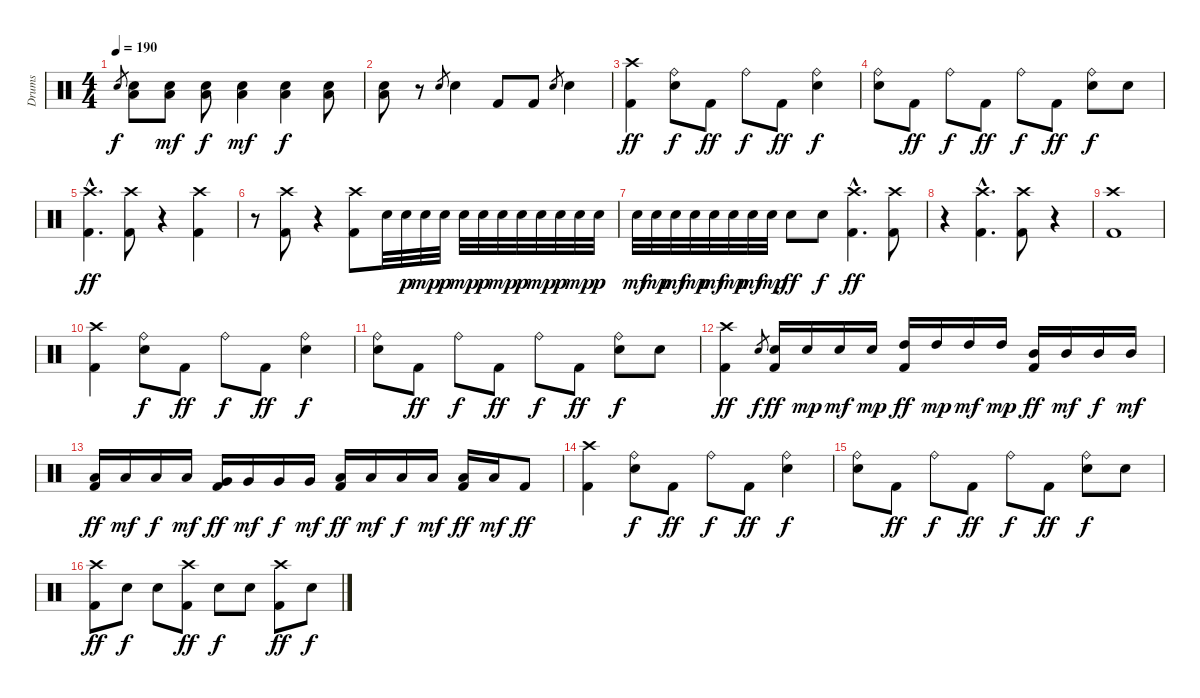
\track ("Drums" "Drums") {instrument percussion}
\staff {score}
\articulation defaults
\ts (4 4)
\tempo 190
\clef neutral
\ks c "Snare (hit) 2".8{gr dy f}
("Low Floor Tom (hit)" "Snare (hit) 2").8 ("Low Floor Tom (hit)" "Snare (hit) 2").8{dy mf} ("Low Floor Tom (hit)" "Snare (hit) 2").8{dy f} ("Low Floor Tom (hit)" "Snare (hit) 2").4{dy mf} ("Low Floor Tom (hit)" "Snare (hit) 2").4{dy f} ("Low Floor Tom (hit)" "Snare (hit) 2").8 |
("Low Floor Tom (hit)" "Snare (hit) 2").8 r.8 "Snare (hit) 2".8{gr} "Snare (hit) 2".4 "Kick (hit) 2".8 "Kick (hit) 2".8 "Snare (hit) 2".8{gr} "Snare (hit) 2".4 |
("Crash high (hit)" "Kick (hit) 2").4{dy ff} ("Ride (bell)" "Snare (hit) 2").8{dy f} "Kick (hit) 2".8{dy ff} "Ride (bell)".8{dy f} "Kick (hit) 2".8{dy ff} ("Ride (bell)" "Snare (hit) 2").4{dy f} |
("Ride (bell)" "Snare (hit) 2").8 "Kick (hit) 2".8{dy ff} "Ride (bell)".8{dy f} "Kick (hit) 2".8{dy ff} "Ride (bell)".8{dy f} "Kick (hit) 2".8{dy ff} ("Ride (bell)" "Snare (hit) 2").8{dy f} "Snare (hit) 2".8 |
("Crash high (hit)"{hac} "Kick (hit) 2"{hac}).4{d dy ff} ("Crash high (hit)" "Kick (hit) 2").8 r.4 ("Crash high (hit)" "Kick (hit) 2").4 |
r.8 ("Crash high (hit)" "Kick (hit) 2").8 r.4 ("Crash high (hit)" "Kick (hit) 2").8 "Snare (hit) 2".32 "Snare (hit) 2".32{dy p} "Snare (hit) 2".32{dy mp} "Snare (hit) 2".32{dy p} "Snare (hit) 2".32{dy mp} "Snare (hit) 2".32{dy p} "Snare (hit) 2".32{dy mp} "Snare (hit) 2".32{dy p} "Snare (hit) 2".32{dy mp} "Snare (hit) 2".32{dy p} "Snare (hit) 2".32{dy mp} "Snare (hit) 2".32{dy p} |
"Snare (hit) 2".32{dy mf} "Snare (hit) 2".32{dy mp} "Snare (hit) 2".32{dy mf} "Snare (hit) 2".32{dy mp} "Snare (hit) 2".32{dy mf} "Snare (hit) 2".32{dy mp} "Snare (hit) 2".32{dy mf} "Snare (hit) 2".32{dy mp} "Snare (hit) 2".8{dy ff} "Snare (hit) 2".8{dy f} ("Crash high (hit)"{hac} "Kick (hit) 2"{hac}).4{d dy ff} ("Crash high (hit)" "Kick (hit) 2").8 |
r.4 ("Crash high (hit)"{hac} "Kick (hit) 2"{hac}).4{d} ("Crash high (hit)" "Kick (hit) 2").8 r.4 |
("Crash high (hit)" "Kick (hit) 2").1 |
("Crash high (hit)" "Kick (hit) 2").4 ("Ride (bell)" "Snare (hit) 2").8{dy f} "Kick (hit) 2".8{dy ff} "Ride (bell)".8{dy f} "Kick (hit) 2".8{dy ff} ("Ride (bell)" "Snare (hit) 2").4{dy f} |
("Ride (bell)" "Snare (hit) 2").8 "Kick (hit) 2".8{dy ff} "Ride (bell)".8{dy f} "Kick (hit) 2".8{dy ff} "Ride (bell)".8{dy f} "Kick (hit) 2".8{dy ff} ("Ride (bell)" "Snare (hit) 2").8{dy f} "Snare (hit) 2".8 |
("Crash high (hit)" "Kick (hit) 2").4{dy ff} "Snare (hit) 2".8{gr dy f} ("Snare (hit) 2" "Kick (hit) 2").16{dy ff} "Snare (hit) 2".16{dy mp} "Snare (hit) 2".16{dy mf} "Snare (hit) 2".16{dy mp} ("High Tom (hit)" "Kick (hit) 2").16{dy ff} "High Tom (hit)".16{dy mp} "High Tom (hit)".16{dy mf} "High Tom (hit)".16{dy mp} ("Mid Tom (hit)" "Kick (hit) 2").16{dy ff} "Mid Tom (hit)".16{dy mf} "Mid Tom (hit)".16{dy f} "Mid Tom (hit)".16{dy mf} |
("Low Tom (hit)" "Kick (hit) 2").16{dy ff} "Low Tom (hit)".16{dy mf} "Low Tom (hit)".16{dy f} "Low Tom (hit)".16{dy mf} ("Very Low Tom (hit)" "Kick (hit) 2").16{dy ff} "Very Low Tom (hit)".16{dy mf} "Very Low Tom (hit)".16{dy f} "Very Low Tom (hit)".16{dy mf} ("Low Floor Tom (hit)" "Kick (hit) 2").16{dy ff} "Low Floor Tom (hit)".16{dy mf} "Low Floor Tom (hit)".16{dy f} "Low Floor Tom (hit)".16{dy mf} ("Low Floor Tom (hit)" "Kick (hit) 2").16{dy ff} "Low Floor Tom (hit)".16{dy mf} "Kick (hit) 2".8{dy ff} |
("Crash high (hit)" "Kick (hit) 2").4 ("Ride (bell)" "Snare (hit) 2").8{dy f} "Kick (hit) 2".8{dy ff} "Ride (bell)".8{dy f} "Kick (hit) 2".8{dy ff} ("Ride (bell)" "Snare (hit) 2").4{dy f} |
("Ride (bell)" "Snare (hit) 2").8 "Kick (hit) 2".8{dy ff} "Ride (bell)".8{dy f} "Kick (hit) 2".8{dy ff} "Ride (bell)".8{dy f} "Kick (hit) 2".8{dy ff} ("Ride (bell)" "Snare (hit) 2").8{dy f} "Snare (hit) 2".8 |
("Crash high (hit)" "Kick (hit) 2").8{dy ff} "Snare (hit) 2".8{dy f} "Snare (hit) 2".8 ("Crash high (hit)" "Kick (hit) 2").8{dy ff} "Snare (hit) 2".8{dy f} "Snare (hit) 2".8 ("Crash high (hit)" "Kick (hit) 2").8{dy ff} "Snare (hit) 2".8{dy f}
